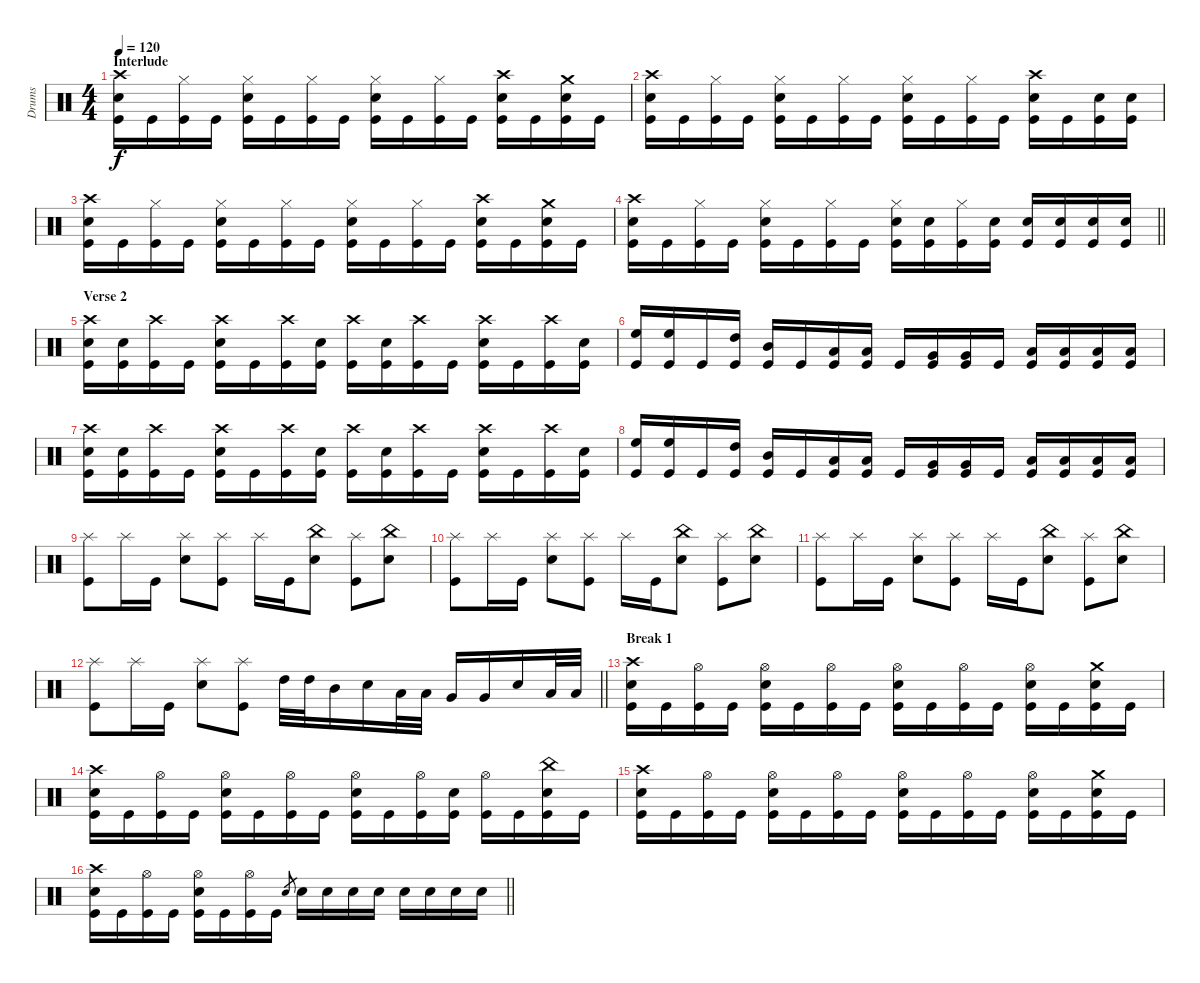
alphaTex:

\track ("Drums" "Drums") {instrument percussion}
\staff {score}
\articulation defaults
\ts (4 4)
\section ("" "Interlude")
\tempo 120
\clef neutral
\ks c
("Crash high (hit)" "Snare (hit) 2" "Kick (hit)").16{dy f} "Kick (hit)".16 ("Hi-Hat (closed)" "Kick (hit)").16 "Kick (hit)".16 ("Hi-Hat (closed)" "Snare (hit) 2" "Kick (hit)").16 "Kick (hit)".16 ("Hi-Hat (closed)" "Kick (hit)").16 "Kick (hit)".16 ("Hi-Hat (closed)" "Snare (hit) 2" "Kick (hit)").16 "Kick (hit)".16 ("Hi-Hat (closed)" "Kick (hit)").16 "Kick (hit)".16 ("Crash high (hit)" "Snare (hit) 2" "Kick (hit)").16 "Kick (hit)".16 ("Crash medium (hit)" "Snare (hit) 2" "Kick (hit)").16 "Kick (hit)".16 |
("Crash high (hit)" "Snare (hit) 2" "Kick (hit)").16 "Kick (hit)".16 ("Hi-Hat (closed)" "Kick (hit)").16 "Kick (hit)".16 ("Hi-Hat (closed)" "Snare (hit) 2" "Kick (hit)").16 "Kick (hit)".16 ("Hi-Hat (closed)" "Kick (hit)").16 "Kick (hit)".16 ("Hi-Hat (closed)" "Snare (hit) 2" "Kick (hit)").16 "Kick (hit)".16 ("Hi-Hat (closed)" "Kick (hit)").16 "Kick (hit)".16 ("Crash high (hit)" "Snare (hit) 2" "Kick (hit)").16 "Kick (hit)".16 ("Snare (hit) 2" "Kick (hit)").16 ("Snare (hit) 2" "Kick (hit)").16 |
("Crash high (hit)" "Snare (hit) 2" "Kick (hit)").16 "Kick (hit)".16 ("Hi-Hat (closed)" "Kick (hit)").16 "Kick (hit)".16 ("Hi-Hat (closed)" "Snare (hit) 2" "Kick (hit)").16 "Kick (hit)".16 ("Hi-Hat (closed)" "Kick (hit)").16 "Kick (hit)".16 ("Hi-Hat (closed)" "Snare (hit) 2" "Kick (hit)").16 "Kick (hit)".16 ("Hi-Hat (closed)" "Kick (hit)").16 "Kick (hit)".16 ("Crash high (hit)" "Snare (hit) 2" "Kick (hit)").16 "Kick (hit)".16 ("Crash medium (hit)" "Snare (hit) 2" "Kick (hit)").16 "Kick (hit)".16 |
\barLineRight lightlight
("Crash high (hit)" "Snare (hit) 2" "Kick (hit)").16 "Kick (hit)".16 ("Hi-Hat (closed)" "Kick (hit)").16 "Kick (hit)".16 ("Hi-Hat (closed)" "Snare (hit) 2" "Kick (hit)").16 "Kick (hit)".16 ("Hi-Hat (closed)" "Kick (hit)").16 "Kick (hit)".16 ("Hi-Hat (closed)" "Snare (hit) 2" "Kick (hit)").16 ("Snare (hit) 2" "Kick (hit)").16 ("Hi-Hat (closed)" "Kick (hit)").16 ("Snare (hit) 2" "Kick (hit)").16 ("Snare (hit) 2" "Kick (hit)").16 ("Snare (hit) 2" "Kick (hit)").16 ("Snare (hit) 2" "Kick (hit)").16 ("Snare (hit) 2" "Kick (hit)").16 |
\section ("" "Verse 2")
("Crash high (hit)" "Snare (hit) 2" "Kick (hit)").16 ("Snare (hit) 2" "Kick (hit)").16 ("Crash high (hit)" "Kick (hit)").16 "Kick (hit)".16 ("Crash high (hit)" "Snare (hit) 2" "Kick (hit)").16 "Kick (hit)".16 ("Crash high (hit)" "Kick (hit)").16 ("Snare (hit) 2" "Kick (hit)").16 ("Crash high (hit)" "Kick (hit)").16 ("Snare (hit) 2" "Kick (hit)").16 ("Crash high (hit)" "Kick (hit)").16 "Kick (hit)".16 ("Crash high (hit)" "Snare (hit) 2" "Kick (hit)").16 "Kick (hit)".16 ("Crash high (hit)" "Kick (hit)").16 ("Snare (hit) 2" "Kick (hit)").16 |
("High Floor Tom (hit)" "Kick (hit)").16 ("High Floor Tom (hit)" "Kick (hit)").16 "Kick (hit)".16 ("High Tom (hit)" "Kick (hit)").16 ("Mid Tom (hit)" "Kick (hit)").16 "Kick (hit)".16 ("Low Tom (hit)" "Kick (hit)").16 ("Low Tom (hit)" "Kick (hit)").16 "Kick (hit)".16 ("Very Low Tom (hit)" "Kick (hit)").16 ("Very Low Tom (hit)" "Kick (hit)").16 "Kick (hit)".16 ("Low Floor Tom (hit)" "Kick (hit)").16 ("Low Floor Tom (hit)" "Kick (hit)").16 ("Low Floor Tom (hit)" "Kick (hit)").16 ("Low Floor Tom (hit)" "Kick (hit)").16 |
("Crash high (hit)" "Snare (hit) 2" "Kick (hit)").16 ("Snare (hit) 2" "Kick (hit)").16 ("Crash high (hit)" "Kick (hit)").16 "Kick (hit)".16 ("Crash high (hit)" "Snare (hit) 2" "Kick (hit)").16 "Kick (hit)".16 ("Crash high (hit)" "Kick (hit)").16 ("Snare (hit) 2" "Kick (hit)").16 ("Crash high (hit)" "Kick (hit)").16 ("Snare (hit) 2" "Kick (hit)").16 ("Crash high (hit)" "Kick (hit)").16 "Kick (hit)".16 ("Crash high (hit)" "Snare (hit) 2" "Kick (hit)").16 "Kick (hit)".16 ("Crash high (hit)" "Kick (hit)").16 ("Snare (hit) 2" "Kick (hit)").16 |
("High Floor Tom (hit)" "Kick (hit)").16 ("High Floor Tom (hit)" "Kick (hit)").16 "Kick (hit)".16 ("High Tom (hit)" "Kick (hit)").16 ("Mid Tom (hit)" "Kick (hit)").16 "Kick (hit)".16 ("Low Tom (hit)" "Kick (hit)").16 ("Low Tom (hit)" "Kick (hit)").16 "Kick (hit)".16 ("Very Low Tom (hit)" "Kick (hit)").16 ("Very Low Tom (hit)" "Kick (hit)").16 "Kick (hit)".16 ("Low Floor Tom (hit)" "Kick (hit)").16 ("Low Floor Tom (hit)" "Kick (hit)").16 ("Low Floor Tom (hit)" "Kick (hit)").16 ("Low Floor Tom (hit)" "Kick (hit)").16 |
("Splash (hit)" "Kick (hit)").8 "Splash (hit)".16 "Kick (hit)".16 ("Splash (hit)" "Snare (hit) 2").8 ("Splash (hit)" "Kick (hit)").8 "Splash (hit)".16 "Kick (hit)".16 ("China (hit)" "Snare (hit) 2").8 ("Splash (hit)" "Kick (hit)").8 ("China (hit)" "Snare (hit) 2").8 |
("Splash (hit)" "Kick (hit)").8 "Splash (hit)".16 "Kick (hit)".16 ("Splash (hit)" "Snare (hit) 2").8 ("Splash (hit)" "Kick (hit)").8 "Splash (hit)".16 "Kick (hit)".16 ("China (hit)" "Snare (hit) 2").8 ("Splash (hit)" "Kick (hit)").8 ("China (hit)" "Snare (hit) 2").8 |
("Splash (hit)" "Kick (hit)").8 "Splash (hit)".16 "Kick (hit)".16 ("Splash (hit)" "Snare (hit) 2").8 ("Splash (hit)" "Kick (hit)").8 "Splash (hit)".16 "Kick (hit)".16 ("China (hit)" "Snare (hit) 2").8 ("Splash (hit)" "Kick (hit)").8 ("China (hit)" "Snare (hit) 2").8 |
\barLineRight lightlight
("Splash (hit)" "Kick (hit)").8 "Splash (hit)".16 "Kick (hit)".16 ("Splash (hit)" "Snare (hit) 2").8 ("Splash (hit)" "Kick (hit)").8 "High Tom (hit)".32 "High Tom (hit)".32 "Mid Tom (hit)".16 "Snare (hit) 2".16 "Low Tom (hit)".32 "Low Tom (hit)".32 "Very Low Tom (hit)".16 "Very Low Tom (hit)".16 "Snare (hit) 2".16 "Low Floor Tom (hit)".32 "Low Floor Tom (hit)".32 |
\section ("" "Break 1")
("Crash high (hit)" "Snare (hit) 2" "Kick (hit)").16 "Kick (hit)".16 ("Hi-Hat (open)" "Kick (hit)").16 "Kick (hit)".16 ("Hi-Hat (open)" "Snare (hit) 2" "Kick (hit)").16 "Kick (hit)".16 ("Hi-Hat (open)" "Kick (hit)").16 "Kick (hit)".16 ("Hi-Hat (open)" "Snare (hit) 2" "Kick (hit)").16 "Kick (hit)".16 ("Hi-Hat (open)" "Kick (hit)").16 "Kick (hit)".16 ("Hi-Hat (open)" "Snare (hit) 2" "Kick (hit)").16 "Kick (hit)".16 ("Crash medium (hit)" "Snare (hit) 2" "Kick (hit)").16 "Kick (hit)".16 |
("Crash high (hit)" "Snare (hit) 2" "Kick (hit)").16 "Kick (hit)".16 ("Hi-Hat (open)" "Kick (hit)").16 "Kick (hit)".16 ("Hi-Hat (open)" "Snare (hit) 2" "Kick (hit)").16 "Kick (hit)".16 ("Hi-Hat (open)" "Kick (hit)").16 "Kick (hit)".16 ("Hi-Hat (open)" "Snare (hit) 2" "Kick (hit)").16 "Kick (hit)".16 ("Hi-Hat (open)" "Kick (hit)").16 ("Snare (hit) 2" "Kick (hit)").16 ("Hi-Hat (open)" "Kick (hit)").16 "Kick (hit)".16 ("China (hit)" "Snare (hit) 2" "Kick (hit)").16 "Kick (hit)".16 |
("Crash high (hit)" "Snare (hit) 2" "Kick (hit)").16 "Kick (hit)".16 ("Hi-Hat (open)" "Kick (hit)").16 "Kick (hit)".16 ("Hi-Hat (open)" "Snare (hit) 2" "Kick (hit)").16 "Kick (hit)".16 ("Hi-Hat (open)" "Kick (hit)").16 "Kick (hit)".16 ("Hi-Hat (open)" "Snare (hit) 2" "Kick (hit)").16 "Kick (hit)".16 ("Hi-Hat (open)" "Kick (hit)").16 "Kick (hit)".16 ("Hi-Hat (open)" "Snare (hit) 2" "Kick (hit)").16 "Kick (hit)".16 ("Crash medium (hit)" "Snare (hit) 2" "Kick (hit)").16 "Kick (hit)".16 |
\barLineRight lightlight
("Crash high (hit)" "Snare (hit) 2" "Kick (hit)").16 "Kick (hit)".16 ("Hi-Hat (open)" "Kick (hit)").16 "Kick (hit)".16 ("Hi-Hat (open)" "Snare (hit) 2" "Kick (hit)").16 "Kick (hit)".16 ("Hi-Hat (open)" "Kick (hit)").16 "Kick (hit)".16 "Snare (hit) 2".8{gr} "Snare (hit) 2".16 "Snare (hit) 2".16 "Snare (hit) 2".16 "Snare (hit) 2".16 "Snare (hit) 2".16 "Snare (hit) 2".16 "Snare (hit) 2".16 "Snare (hit) 2".16
